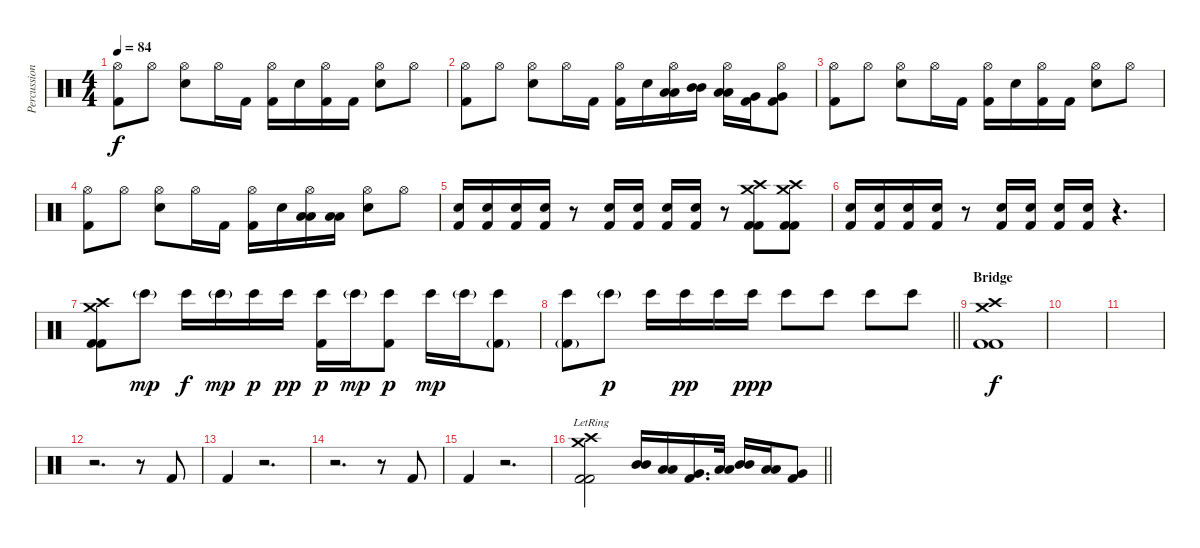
\track ("Percussion" "Percussion") {instrument percussion}
\staff {score}
\articulation defaults
\ts (4 4)
\tempo 84
\clef neutral
\ks c
("Hi-Hat (open)" "Kick (hit) 2").8{dy f} "Hi-Hat (open)".8 ("Hi-Hat (open)" "Electric Snare (hit)").8 "Hi-Hat (open)".16 "Kick (hit) 2".16 ("Hi-Hat (open)" "Kick (hit) 2").16 "Electric Snare (hit)".16 ("Hi-Hat (open)" "Kick (hit) 2").16 "Kick (hit) 2".16 ("Hi-Hat (open)" "Electric Snare (hit)").8 "Hi-Hat (open)".8 |
("Hi-Hat (open)" "Kick (hit) 2").8 "Hi-Hat (open)".8 ("Hi-Hat (open)" "Electric Snare (hit)").8 "Hi-Hat (open)".16 "Kick (hit) 2".16 ("Hi-Hat (open)" "Kick (hit) 2").16 "Electric Snare (hit)".16 ("Hi-Hat (open)" "Low Tom (hit)" "Low Tom (hit)").16 ("Mid Tom (hit)" "Mid Tom (hit)").16 ("Hi-Hat (open)" "Low Tom (hit)" "Low Tom (hit)").16 ("Very Low Tom (hit)" "Kick (hit) 2").16 ("Hi-Hat (open)" "Very Low Tom (hit)" "Kick (hit) 2").8 |
("Hi-Hat (open)" "Kick (hit) 2").8 "Hi-Hat (open)".8 ("Hi-Hat (open)" "Electric Snare (hit)").8 "Hi-Hat (open)".16 "Kick (hit) 2".16 ("Hi-Hat (open)" "Kick (hit) 2").16 "Electric Snare (hit)".16 ("Hi-Hat (open)" "Kick (hit) 2").16 "Kick (hit) 2".16 ("Hi-Hat (open)" "Electric Snare (hit)").8 "Hi-Hat (open)".8 |
("Hi-Hat (open)" "Kick (hit) 2").8 "Hi-Hat (open)".8 ("Hi-Hat (open)" "Electric Snare (hit)").8 "Hi-Hat (open)".16 "Kick (hit) 2".16 ("Hi-Hat (open)" "Kick (hit) 2").16 "Electric Snare (hit)".16 ("Hi-Hat (open)" "Low Tom (hit)" "Low Tom (hit)").16 ("Low Tom (hit)" "Low Tom (hit)").16 ("Hi-Hat (open)" "Electric Snare (hit)").8 "Hi-Hat (open)".8 |
("Electric Snare (hit)" "Kick (hit) 2").16 ("Electric Snare (hit)" "Kick (hit) 2").16 ("Electric Snare (hit)" "Kick (hit) 2").16 ("Electric Snare (hit)" "Kick (hit) 2").16 r.8 ("Electric Snare (hit)" "Kick (hit) 2").16 ("Electric Snare (hit)" "Kick (hit) 2").16 ("Electric Snare (hit)" "Kick (hit) 2").16 ("Electric Snare (hit)" "Kick (hit) 2").16 r.8 ("Crash medium (hit)" "Crash high (hit)" "Kick (hit) 2" "Kick (hit) 2").8 ("Crash medium (hit)" "Crash high (hit)" "Kick (hit) 2" "Kick (hit) 2").8 |
("Electric Snare (hit)" "Kick (hit) 2").16 ("Electric Snare (hit)" "Kick (hit) 2").16 ("Electric Snare (hit)" "Kick (hit) 2").16 ("Electric Snare (hit)" "Kick (hit) 2").16 r.8 ("Electric Snare (hit)" "Kick (hit) 2").16 ("Electric Snare (hit)" "Kick (hit) 2").16 ("Electric Snare (hit)" "Kick (hit) 2").16 ("Electric Snare (hit)" "Kick (hit) 2").16 r.4{d} |
("Crash medium (hit)" "Crash high (hit)" "Kick (hit) 2" "Kick (hit) 2").8 "Bongo High (hit)"{g}.8{dy mp} "Bongo High (hit)".16{dy f} "Bongo High (hit)"{g}.16{dy mp} "Bongo High (hit)".16{dy p} "Bongo High (hit)".16{dy pp} ("Bongo High (hit)" "Kick (hit) 2").16{dy p} "Bongo High (hit)"{g}.16{dy mp} ("Bongo High (hit)" "Kick (hit) 2").8{dy p} "Bongo High (hit)".16{dy mp} "Bongo High (hit)"{g}.16 ("Bongo High (hit)" "Kick (hit) 2"{g}).8 |
\barLineRight lightlight
("Bongo High (hit)" "Kick (hit) 2"{g}).8 "Bongo High (hit)"{g}.8{dy p} "Bongo High (hit)".16 "Bongo High (hit)".16{dy pp} "Bongo High (hit)".16 "Bongo High (hit)".16{dy ppp} "Bongo High (hit)".8 "Bongo High (hit)".8 "Bongo High (hit)".8 "Bongo High (hit)".8 |
\section ("" "Bridge")
("Crash medium (hit)" "Crash high (hit)" "Kick (hit) 2" "Kick (hit) 2").1{dy f} |
|
|
r.2{d} r.8 "Kick (hit) 2".8 |
"Kick (hit) 2".4 r.2{d} |
r.2{d} r.8 "Kick (hit) 2".8 |
"Kick (hit) 2".4 r.2{d} |
\barLineRight lightlight
("Crash medium (hit)"{lr} "Crash high (hit)"{lr} "Kick (hit) 2" "Kick (hit) 2").2 ("Mid Tom (hit)" "Mid Tom (hit)").16 ("Low Tom (hit)" "Low Tom (hit)").16 ("Very Low Tom (hit)" "Kick (hit) 2").16{d} ("Low Tom (hit)" "Low Tom (hit)").32 ("Mid Tom (hit)" "Mid Tom (hit)").16 ("Low Tom (hit)" "Low Tom (hit)").16 ("Very Low Tom (hit)" "Kick (hit) 2").8
